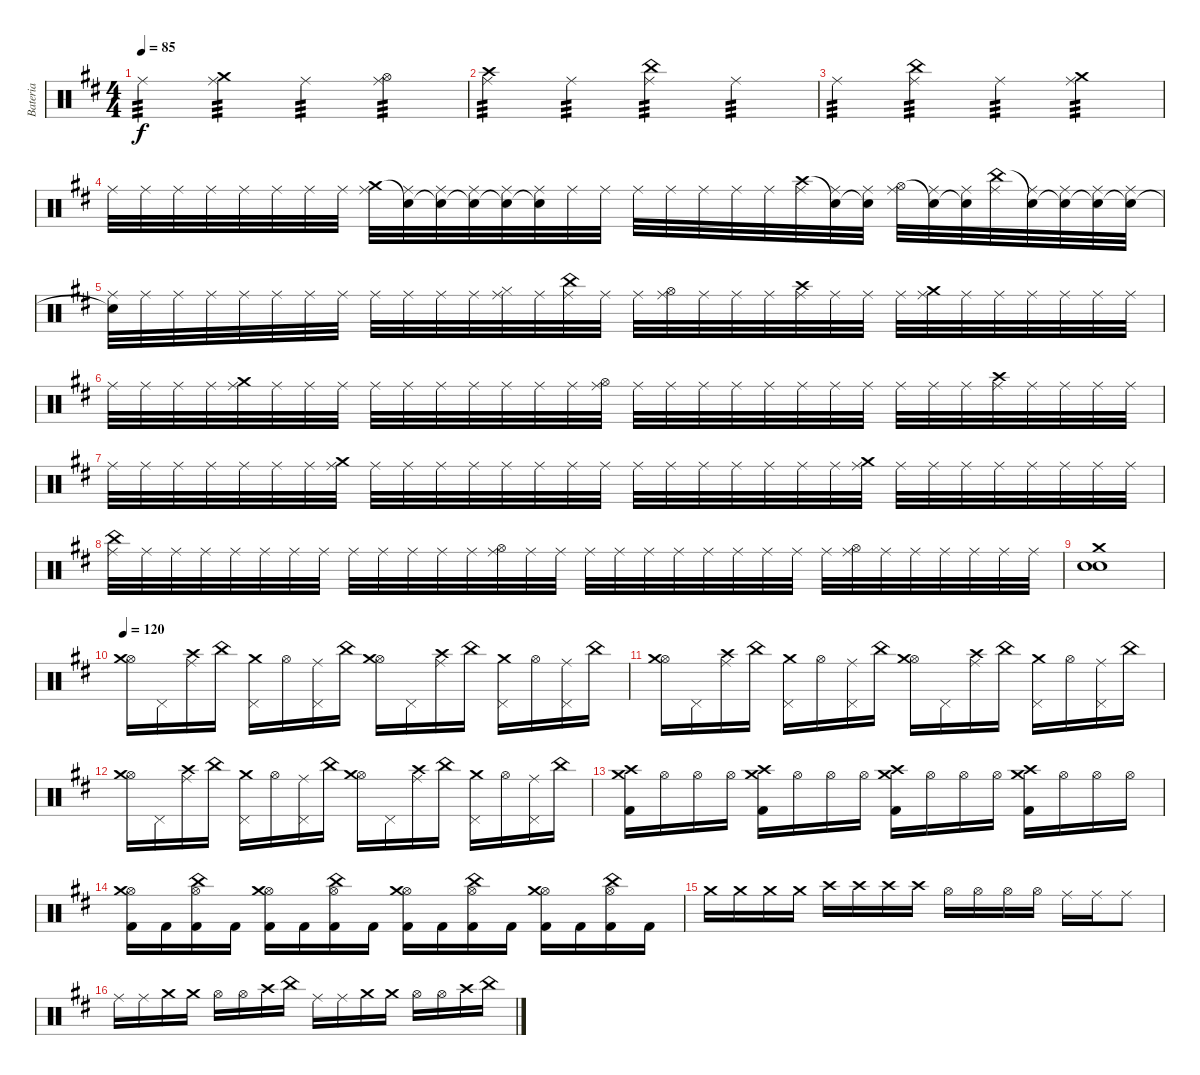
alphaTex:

\track ("Bateria" "Bateria") {instrument percussion}
\staff {score}
\articulation defaults
\ts (4 4)
\tempo 85
\clef neutral
\ks d "Ride (middle)".4{tp 3 dy f}
("Crash medium (hit)" "Ride (middle)").4{tp 3} "Ride (middle)".4{tp 3} ("Hi-Hat (open)" "Ride (middle)").4{tp 3} |
("Crash high (hit)" "Ride (middle)").4{tp 3} "Ride (middle)".4{tp 3} ("China (hit)" "Ride (middle)").4{tp 3} "Ride (middle)".4{tp 3} |
"Ride (middle)".4{tp 3} ("China (hit)" "Ride (middle)").4{tp 3} "Ride (middle)".4{tp 3} ("Crash medium (hit)" "Ride (middle)").4{tp 3} |
"Ride (middle)".32{balance 16} "Ride (middle)".32 "Ride (middle)".32 "Ride (middle)".32 "Ride (middle)".32 "Ride (middle)".32 "Ride (middle)".32 "Ride (middle)".32 ("Crash medium (hit)" "Ride (middle)").32 ("Snare (hit)"{t} "Ride (middle)").32{balance 0} ("Snare (hit)"{t} "Ride (middle)").32 ("Snare (hit)"{t} "Ride (middle)").32 ("Snare (hit)"{t} "Ride (middle)").32 ("Snare (hit)"{t} "Ride (middle)").32 "Ride (middle)".32 "Ride (middle)".32 "Ride (middle)".32 "Ride (middle)".32 "Ride (middle)".32 "Ride (middle)".32 "Ride (middle)".32 ("Crash high (hit)" "Ride (middle)").32 ("Snare (hit)"{t} "Ride (middle)").32 ("Snare (hit)"{t} "Ride (middle)").32 ("Hi-Hat (open)" "Ride (middle)").32 ("Snare (hit)"{t} "Ride (middle)").32 ("Snare (hit)"{t} "Ride (middle)").32 ("China (hit)" "Ride (middle)").32 ("Snare (hit)"{t} "Ride (middle)").32 ("Snare (hit)"{t} "Ride (middle)").32 ("Snare (hit)"{t} "Ride (middle)").32 ("Snare (hit)"{t} "Ride (middle)").32 |
("Snare (hit)"{t} "Ride (middle)").32 "Ride (middle)".32 "Ride (middle)".32 "Ride (middle)".32 "Ride (middle)".32 "Ride (middle)".32 "Ride (middle)".32 "Ride (middle)".32 "Ride (middle)".32 "Ride (middle)".32{balance 16} "Ride (middle)".32 "Ride (middle)".32 ("Hi-Hat (closed)" "Ride (middle)").32 "Ride (middle)".32 ("China (hit)" "Ride (middle)").32 "Ride (middle)".32 "Ride (middle)".32 ("Hi-Hat (open)" "Ride (middle)").32 "Ride (middle)".32 "Ride (middle)".32 "Ride (middle)".32 ("Crash high (hit)" "Ride (middle)").32 "Ride (middle)".32 "Ride (middle)".32 "Ride (middle)".32 ("Crash medium (hit)" "Ride (middle)").32 "Ride (middle)".32 "Ride (middle)".32 "Ride (middle)".32 "Ride (middle)".32 "Ride (middle)".32 "Ride (middle)".32 |
"Ride (middle)".32 "Ride (middle)".32 "Ride (middle)".32 "Ride (middle)".32 ("Crash medium (hit)" "Ride (middle)").32 "Ride (middle)".32 "Ride (middle)".32 "Ride (middle)".32 "Ride (middle)".32 "Ride (middle)".32 "Ride (middle)".32 "Ride (middle)".32 "Ride (middle)".32 "Ride (middle)".32{balance 0} "Ride (middle)".32 ("Hi-Hat (open)" "Ride (middle)").32 "Ride (middle)".32 "Ride (middle)".32 "Ride (middle)".32 "Ride (middle)".32 "Ride (middle)".32 "Ride (middle)".32 "Ride (middle)".32 "Ride (middle)".32 "Ride (middle)".32 "Ride (middle)".32 "Ride (middle)".32 ("Crash high (hit)" "Ride (middle)").32 "Ride (middle)".32 "Ride (middle)".32 "Ride (middle)".32 "Ride (middle)".32 |
"Ride (middle)".32 "Ride (middle)".32 "Ride (middle)".32 "Ride (middle)".32 "Ride (middle)".32 "Ride (middle)".32 "Ride (middle)".32 ("Crash medium (hit)" "Ride (middle)").32 "Ride (middle)".32 "Ride (middle)".32 "Ride (middle)".32 "Ride (middle)".32 "Ride (middle)".32{balance 16} "Ride (middle)".32 "Ride (middle)".32 "Ride (middle)".32 "Ride (middle)".32 "Ride (middle)".32 "Ride (middle)".32 "Ride (middle)".32 "Ride (middle)".32 "Ride (middle)".32 "Ride (middle)".32 ("Crash medium (hit)" "Ride (middle)").32 "Ride (middle)".32 "Ride (middle)".32 "Ride (middle)".32 "Ride (middle)".32 "Ride (middle)".32 "Ride (middle)".32 "Ride (middle)".32 "Ride (middle)".32 |
("China (hit)" "Ride (middle)").32 "Ride (middle)".32 "Ride (middle)".32 "Ride (middle)".32 "Ride (middle)".32 "Ride (middle)".32{balance 0} "Ride (middle)".32 "Ride (middle)".32 "Ride (middle)".32 "Ride (middle)".32 "Ride (middle)".32 "Ride (middle)".32 "Ride (middle)".32 ("Hi-Hat (open)" "Ride (middle)").32 "Ride (middle)".32 "Ride (middle)".32 "Ride (middle)".32 "Ride (middle)".32 "Ride (middle)".32 "Ride (middle)".32 "Ride (middle)".32 "Ride (middle)".32 "Ride (middle)".32 "Ride (middle)".32 "Ride (middle)".32 ("Hi-Hat (open)" "Ride (middle)").32 "Ride (middle)".32 "Ride (middle)".32 "Ride (middle)".32 "Ride (middle)".32 "Ride (middle)".32 "Ride (middle)".32 |
("Crash medium (hit)" "Electric Snare (hit)" "Snare (hit)").1{volume 16 balance 8} |
\tempo 120
("Hi-Hat (open)" "Crash medium (hit)").16 "Pedal Hi-Hat (hit)".16 ("Crash high (hit)" "Ride (middle)").16 "China (hit)".16 ("Pedal Hi-Hat (hit)" "Crash medium (hit)").16 "Hi-Hat (open)".16 ("Pedal Hi-Hat (hit)" "Ride (middle)").16 "China (hit)".16 ("Hi-Hat (open)" "Crash medium (hit)").16 "Pedal Hi-Hat (hit)".16 ("Crash high (hit)" "Ride (middle)").16 "China (hit)".16 ("Pedal Hi-Hat (hit)" "Crash medium (hit)").16 "Hi-Hat (open)".16 ("Pedal Hi-Hat (hit)" "Ride (middle)").16 "China (hit)".16 |
("Hi-Hat (open)" "Crash medium (hit)").16 "Pedal Hi-Hat (hit)".16 ("Crash high (hit)" "Ride (middle)").16 "China (hit)".16 ("Pedal Hi-Hat (hit)" "Crash medium (hit)").16 "Hi-Hat (open)".16 ("Pedal Hi-Hat (hit)" "Ride (middle)").16 "China (hit)".16 ("Hi-Hat (open)" "Crash medium (hit)").16 "Pedal Hi-Hat (hit)".16 ("Crash high (hit)" "Ride (middle)").16 "China (hit)".16 ("Pedal Hi-Hat (hit)" "Crash medium (hit)").16 "Hi-Hat (open)".16 ("Pedal Hi-Hat (hit)" "Ride (middle)").16 "China (hit)".16 |
("Hi-Hat (open)" "Crash medium (hit)").16 "Pedal Hi-Hat (hit)".16 ("Crash high (hit)" "Ride (middle)").16 "China (hit)".16 ("Pedal Hi-Hat (hit)" "Crash medium (hit)").16 "Hi-Hat (open)".16 ("Pedal Hi-Hat (hit)" "Ride (middle)").16 "China (hit)".16 ("Hi-Hat (open)" "Crash medium (hit)").16 "Pedal Hi-Hat (hit)".16 ("Crash high (hit)" "Ride (middle)").16 "China (hit)".16 ("Pedal Hi-Hat (hit)" "Crash medium (hit)").16 "Hi-Hat (open)".16 ("Pedal Hi-Hat (hit)" "Ride (middle)").16 "China (hit)".16 |
("Crash high (hit)" "Crash medium (hit)" "Kick (hit) 2").16 "Hi-Hat (open)".16 "Hi-Hat (open)".16 "Hi-Hat (open)".16 ("Crash high (hit)" "Crash medium (hit)" "Kick (hit) 2").16 "Hi-Hat (open)".16 "Hi-Hat (open)".16 "Hi-Hat (open)".16 ("Crash high (hit)" "Crash medium (hit)" "Kick (hit) 2").16 "Hi-Hat (open)".16 "Hi-Hat (open)".16 "Hi-Hat (open)".16 ("Crash high (hit)" "Crash medium (hit)" "Kick (hit) 2").16 "Hi-Hat (open)".16 "Hi-Hat (open)".16 "Hi-Hat (open)".16 |
("Hi-Hat (open)" "Crash medium (hit)" "Kick (hit) 2").16 "Kick (hit) 2".16 ("Hi-Hat (open)" "China (hit)" "Kick (hit) 2").16 "Kick (hit) 2".16 ("Hi-Hat (open)" "Crash medium (hit)" "Kick (hit) 2").16 "Kick (hit) 2".16 ("Hi-Hat (open)" "China (hit)" "Kick (hit) 2").16 "Kick (hit) 2".16 ("Hi-Hat (open)" "Crash medium (hit)" "Kick (hit) 2").16 "Kick (hit) 2".16 ("Hi-Hat (open)" "China (hit)" "Kick (hit) 2").16 "Kick (hit) 2".16 ("Hi-Hat (open)" "Crash medium (hit)" "Kick (hit) 2").16 "Kick (hit) 2".16 ("Hi-Hat (open)" "China (hit)" "Kick (hit) 2").16 "Kick (hit) 2".16 |
"Crash medium (hit)".16 "Crash medium (hit)".16 "Crash medium (hit)".16 "Crash medium (hit)".16 "Crash high (hit)".16 "Crash high (hit)".16 "Crash high (hit)".16 "Crash high (hit)".16 "Hi-Hat (open)".16 "Hi-Hat (open)".16 "Hi-Hat (open)".16 "Hi-Hat (open)".16 "Ride (middle)".16 "Ride (middle)".16 "Ride (middle)".8 |
"Ride (middle)".16 "Ride (middle)".16 "Crash medium (hit)".16 "Crash medium (hit)".16 "Hi-Hat (open)".16 "Hi-Hat (open)".16 "Crash high (hit)".16 "China (hit)".16 "Ride (middle)".16 "Ride (middle)".16 "Crash medium (hit)".16 "Crash medium (hit)".16 "Hi-Hat (open)".16 "Hi-Hat (open)".16 "Crash high (hit)".16 "China (hit)".16
